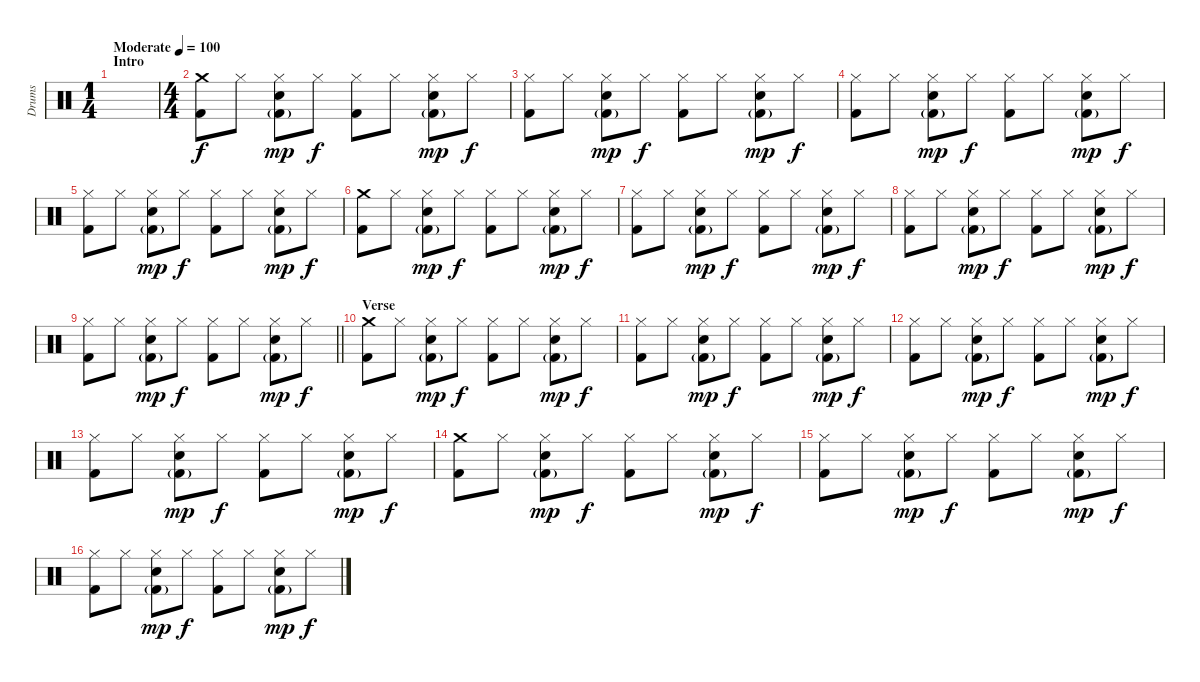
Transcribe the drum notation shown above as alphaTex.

\track ("Drums" "Drums") {instrument percussion}
\staff {score}
\articulation defaults
\ts (1 4)
\section ("" "Intro")
\tempo (100 "Moderate")
\clef neutral
\ks c
|
\ts (4 4)
("Crash medium (hit)" "Kick (hit) 2").8 "Hi-Hat (closed)".8 ("Hi-Hat (closed)" "Electric Snare (hit)" "Kick (hit) 2"{g}).8{dy mp} "Hi-Hat (closed)".8{dy f} ("Hi-Hat (closed)" "Kick (hit) 2").8 "Hi-Hat (closed)".8 ("Hi-Hat (closed)" "Electric Snare (hit)" "Kick (hit) 2"{g}).8{dy mp} "Hi-Hat (closed)".8{dy f} |
("Hi-Hat (closed)" "Kick (hit) 2").8 "Hi-Hat (closed)".8 ("Hi-Hat (closed)" "Electric Snare (hit)" "Kick (hit) 2"{g}).8{dy mp} "Hi-Hat (closed)".8{dy f} ("Hi-Hat (closed)" "Kick (hit) 2").8 "Hi-Hat (closed)".8 ("Hi-Hat (closed)" "Electric Snare (hit)" "Kick (hit) 2"{g}).8{dy mp} "Hi-Hat (closed)".8{dy f} |
("Hi-Hat (closed)" "Kick (hit) 2").8 "Hi-Hat (closed)".8 ("Hi-Hat (closed)" "Electric Snare (hit)" "Kick (hit) 2"{g}).8{dy mp} "Hi-Hat (closed)".8{dy f} ("Hi-Hat (closed)" "Kick (hit) 2").8 "Hi-Hat (closed)".8 ("Hi-Hat (closed)" "Electric Snare (hit)" "Kick (hit) 2"{g}).8{dy mp} "Hi-Hat (closed)".8{dy f} |
("Hi-Hat (closed)" "Kick (hit) 2").8 "Hi-Hat (closed)".8 ("Hi-Hat (closed)" "Electric Snare (hit)" "Kick (hit) 2"{g}).8{dy mp} "Hi-Hat (closed)".8{dy f} ("Hi-Hat (closed)" "Kick (hit) 2").8 "Hi-Hat (closed)".8 ("Hi-Hat (closed)" "Electric Snare (hit)" "Kick (hit) 2"{g}).8{dy mp} "Hi-Hat (closed)".8{dy f} |
("Crash medium (hit)" "Kick (hit) 2").8 "Hi-Hat (closed)".8 ("Hi-Hat (closed)" "Electric Snare (hit)" "Kick (hit) 2"{g}).8{dy mp} "Hi-Hat (closed)".8{dy f} ("Hi-Hat (closed)" "Kick (hit) 2").8 "Hi-Hat (closed)".8 ("Hi-Hat (closed)" "Electric Snare (hit)" "Kick (hit) 2"{g}).8{dy mp} "Hi-Hat (closed)".8{dy f} |
("Hi-Hat (closed)" "Kick (hit) 2").8 "Hi-Hat (closed)".8 ("Hi-Hat (closed)" "Electric Snare (hit)" "Kick (hit) 2"{g}).8{dy mp} "Hi-Hat (closed)".8{dy f} ("Hi-Hat (closed)" "Kick (hit) 2").8 "Hi-Hat (closed)".8 ("Hi-Hat (closed)" "Electric Snare (hit)" "Kick (hit) 2"{g}).8{dy mp} "Hi-Hat (closed)".8{dy f} |
("Hi-Hat (closed)" "Kick (hit) 2").8 "Hi-Hat (closed)".8 ("Hi-Hat (closed)" "Electric Snare (hit)" "Kick (hit) 2"{g}).8{dy mp} "Hi-Hat (closed)".8{dy f} ("Hi-Hat (closed)" "Kick (hit) 2").8 "Hi-Hat (closed)".8 ("Hi-Hat (closed)" "Electric Snare (hit)" "Kick (hit) 2"{g}).8{dy mp} "Hi-Hat (closed)".8{dy f} |
\barLineRight lightlight
("Hi-Hat (closed)" "Kick (hit) 2").8 "Hi-Hat (closed)".8 ("Hi-Hat (closed)" "Electric Snare (hit)" "Kick (hit) 2"{g}).8{dy mp} "Hi-Hat (closed)".8{dy f} ("Hi-Hat (closed)" "Kick (hit) 2").8 "Hi-Hat (closed)".8 ("Hi-Hat (closed)" "Electric Snare (hit)" "Kick (hit) 2"{g}).8{dy mp} "Hi-Hat (closed)".8{dy f} |
\section ("" "Verse")
("Crash medium (hit)" "Kick (hit) 2").8 "Hi-Hat (closed)".8 ("Hi-Hat (closed)" "Electric Snare (hit)" "Kick (hit) 2"{g}).8{dy mp} "Hi-Hat (closed)".8{dy f} ("Hi-Hat (closed)" "Kick (hit) 2").8 "Hi-Hat (closed)".8 ("Hi-Hat (closed)" "Electric Snare (hit)" "Kick (hit) 2"{g}).8{dy mp} "Hi-Hat (closed)".8{dy f} |
("Hi-Hat (closed)" "Kick (hit) 2").8 "Hi-Hat (closed)".8 ("Hi-Hat (closed)" "Electric Snare (hit)" "Kick (hit) 2"{g}).8{dy mp} "Hi-Hat (closed)".8{dy f} ("Hi-Hat (closed)" "Kick (hit) 2").8 "Hi-Hat (closed)".8 ("Hi-Hat (closed)" "Electric Snare (hit)" "Kick (hit) 2"{g}).8{dy mp} "Hi-Hat (closed)".8{dy f} |
("Hi-Hat (closed)" "Kick (hit) 2").8 "Hi-Hat (closed)".8 ("Hi-Hat (closed)" "Electric Snare (hit)" "Kick (hit) 2"{g}).8{dy mp} "Hi-Hat (closed)".8{dy f} ("Hi-Hat (closed)" "Kick (hit) 2").8 "Hi-Hat (closed)".8 ("Hi-Hat (closed)" "Electric Snare (hit)" "Kick (hit) 2"{g}).8{dy mp} "Hi-Hat (closed)".8{dy f} |
("Hi-Hat (closed)" "Kick (hit) 2").8 "Hi-Hat (closed)".8 ("Hi-Hat (closed)" "Electric Snare (hit)" "Kick (hit) 2"{g}).8{dy mp} "Hi-Hat (closed)".8{dy f} ("Hi-Hat (closed)" "Kick (hit) 2").8 "Hi-Hat (closed)".8 ("Hi-Hat (closed)" "Electric Snare (hit)" "Kick (hit) 2"{g}).8{dy mp} "Hi-Hat (closed)".8{dy f} |
("Crash medium (hit)" "Kick (hit) 2").8 "Hi-Hat (closed)".8 ("Hi-Hat (closed)" "Electric Snare (hit)" "Kick (hit) 2"{g}).8{dy mp} "Hi-Hat (closed)".8{dy f} ("Hi-Hat (closed)" "Kick (hit) 2").8 "Hi-Hat (closed)".8 ("Hi-Hat (closed)" "Electric Snare (hit)" "Kick (hit) 2"{g}).8{dy mp} "Hi-Hat (closed)".8{dy f} |
("Hi-Hat (closed)" "Kick (hit) 2").8 "Hi-Hat (closed)".8 ("Hi-Hat (closed)" "Electric Snare (hit)" "Kick (hit) 2"{g}).8{dy mp} "Hi-Hat (closed)".8{dy f} ("Hi-Hat (closed)" "Kick (hit) 2").8 "Hi-Hat (closed)".8 ("Hi-Hat (closed)" "Electric Snare (hit)" "Kick (hit) 2"{g}).8{dy mp} "Hi-Hat (closed)".8{dy f} |
("Hi-Hat (closed)" "Kick (hit) 2").8 "Hi-Hat (closed)".8 ("Hi-Hat (closed)" "Electric Snare (hit)" "Kick (hit) 2"{g}).8{dy mp} "Hi-Hat (closed)".8{dy f} ("Hi-Hat (closed)" "Kick (hit) 2").8 "Hi-Hat (closed)".8 ("Hi-Hat (closed)" "Electric Snare (hit)" "Kick (hit) 2"{g}).8{dy mp} "Hi-Hat (closed)".8{dy f}
